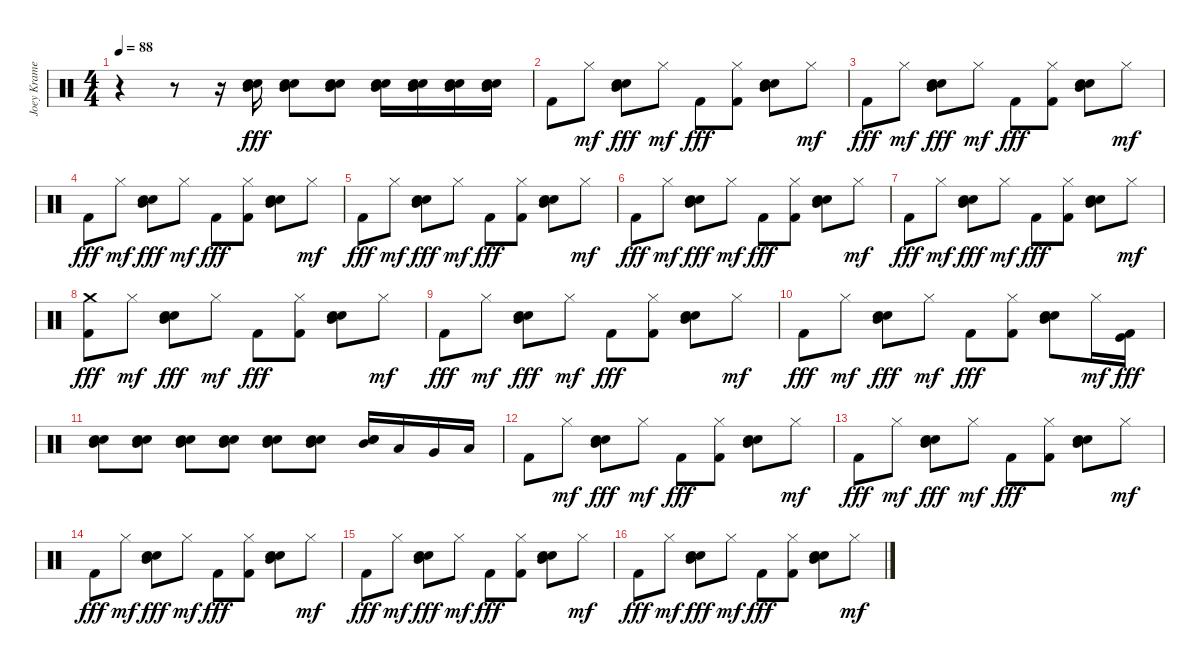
\track ("Joey Kramer" "Joey Krame") {instrument percussion}
\staff {score}
\articulation defaults
\ts (4 4)
\tempo 88
\clef neutral
\ks c
r.4{dy fff} r.8 r.16 ("Snare (hit) 2" "Electric Snare (hit)" "Mid Tom (hit)").16 ("Snare (hit) 2" "Electric Snare (hit)" "Mid Tom (hit)").8 ("Snare (hit) 2" "Electric Snare (hit)" "Mid Tom (hit)").8 ("Snare (hit) 2" "Electric Snare (hit)" "Mid Tom (hit)").16 ("Snare (hit) 2" "Electric Snare (hit)" "Mid Tom (hit)").16 ("Snare (hit) 2" "Electric Snare (hit)" "Mid Tom (hit)").16 ("Snare (hit) 2" "Electric Snare (hit)" "Mid Tom (hit)").16 |
"Kick (hit) 2".8 "Hi-Hat (closed)".8{dy mf} ("Snare (hit) 2" "Electric Snare (hit)" "Mid Tom (hit)").8{dy fff} "Hi-Hat (closed)".8{dy mf} "Kick (hit) 2".8{dy fff} ("Hi-Hat (closed)" "Kick (hit) 2").8 ("Snare (hit) 2" "Electric Snare (hit)" "Mid Tom (hit)").8 "Hi-Hat (closed)".8{dy mf} |
"Kick (hit) 2".8{dy fff} "Hi-Hat (closed)".8{dy mf} ("Snare (hit) 2" "Electric Snare (hit)" "Mid Tom (hit)").8{dy fff} "Hi-Hat (closed)".8{dy mf} "Kick (hit) 2".8{dy fff} ("Hi-Hat (closed)" "Kick (hit) 2").8 ("Snare (hit) 2" "Electric Snare (hit)" "Mid Tom (hit)").8 "Hi-Hat (closed)".8{dy mf} |
"Kick (hit) 2".8{dy fff} "Hi-Hat (closed)".8{dy mf} ("Snare (hit) 2" "Electric Snare (hit)" "Mid Tom (hit)").8{dy fff} "Hi-Hat (closed)".8{dy mf} "Kick (hit) 2".8{dy fff} ("Hi-Hat (closed)" "Kick (hit) 2").8 ("Snare (hit) 2" "Electric Snare (hit)" "Mid Tom (hit)").8 "Hi-Hat (closed)".8{dy mf} |
"Kick (hit) 2".8{dy fff} "Hi-Hat (closed)".8{dy mf} ("Snare (hit) 2" "Electric Snare (hit)" "Mid Tom (hit)").8{dy fff} "Hi-Hat (closed)".8{dy mf} "Kick (hit) 2".8{dy fff} ("Hi-Hat (closed)" "Kick (hit) 2").8 ("Snare (hit) 2" "Electric Snare (hit)" "Mid Tom (hit)").8 "Hi-Hat (closed)".8{dy mf} |
"Kick (hit) 2".8{dy fff} "Hi-Hat (closed)".8{dy mf} ("Snare (hit) 2" "Electric Snare (hit)" "Mid Tom (hit)").8{dy fff} "Hi-Hat (closed)".8{dy mf} "Kick (hit) 2".8{dy fff} ("Hi-Hat (closed)" "Kick (hit) 2").8 ("Snare (hit) 2" "Electric Snare (hit)" "Mid Tom (hit)").8 "Hi-Hat (closed)".8{dy mf} |
"Kick (hit) 2".8{dy fff} "Hi-Hat (closed)".8{dy mf} ("Snare (hit) 2" "Electric Snare (hit)" "Mid Tom (hit)").8{dy fff} "Hi-Hat (closed)".8{dy mf} "Kick (hit) 2".8{dy fff} ("Hi-Hat (closed)" "Kick (hit) 2").8 ("Snare (hit) 2" "Electric Snare (hit)" "Mid Tom (hit)").8 "Hi-Hat (closed)".8{dy mf} |
("Crash medium (hit)" "Kick (hit) 2").8{dy fff} "Hi-Hat (closed)".8{dy mf} ("Snare (hit) 2" "Electric Snare (hit)" "Mid Tom (hit)").8{dy fff} "Hi-Hat (closed)".8{dy mf} "Kick (hit) 2".8{dy fff} ("Hi-Hat (closed)" "Kick (hit) 2").8 ("Snare (hit) 2" "Electric Snare (hit)" "Mid Tom (hit)").8 "Hi-Hat (closed)".8{dy mf} |
"Kick (hit) 2".8{dy fff} "Hi-Hat (closed)".8{dy mf} ("Snare (hit) 2" "Electric Snare (hit)" "Mid Tom (hit)").8{dy fff} "Hi-Hat (closed)".8{dy mf} "Kick (hit) 2".8{dy fff} ("Hi-Hat (closed)" "Kick (hit) 2").8 ("Snare (hit) 2" "Electric Snare (hit)" "Mid Tom (hit)").8 "Hi-Hat (closed)".8{dy mf} |
"Kick (hit) 2".8{dy fff} "Hi-Hat (closed)".8{dy mf} ("Snare (hit) 2" "Electric Snare (hit)" "Mid Tom (hit)").8{dy fff} "Hi-Hat (closed)".8{dy mf} "Kick (hit) 2".8{dy fff} ("Hi-Hat (closed)" "Kick (hit) 2").8 ("Snare (hit) 2" "Electric Snare (hit)" "Mid Tom (hit)").8 "Hi-Hat (closed)".16{dy mf} ("Kick (hit)" "Kick (hit) 2").16{dy fff} |
("Snare (hit) 2" "Electric Snare (hit)" "Mid Tom (hit)").8 ("Snare (hit) 2" "Electric Snare (hit)" "Mid Tom (hit)").8 ("Snare (hit) 2" "Electric Snare (hit)" "Mid Tom (hit)").8 ("Snare (hit) 2" "Electric Snare (hit)" "Mid Tom (hit)").8 ("Snare (hit) 2" "Electric Snare (hit)" "Mid Tom (hit)").8 ("Snare (hit) 2" "Electric Snare (hit)" "Mid Tom (hit)").8 ("Snare (hit) 2" "Electric Snare (hit)" "Mid Tom (hit)").16 "Low Tom (hit)".16 "Very Low Tom (hit)".16 "Low Floor Tom (hit)".16 |
"Kick (hit) 2".8 "Hi-Hat (closed)".8{dy mf} ("Snare (hit) 2" "Electric Snare (hit)" "Mid Tom (hit)").8{dy fff} "Hi-Hat (closed)".8{dy mf} "Kick (hit) 2".8{dy fff} ("Hi-Hat (closed)" "Kick (hit) 2").8 ("Snare (hit) 2" "Electric Snare (hit)" "Mid Tom (hit)").8 "Hi-Hat (closed)".8{dy mf} |
"Kick (hit) 2".8{dy fff} "Hi-Hat (closed)".8{dy mf} ("Snare (hit) 2" "Electric Snare (hit)" "Mid Tom (hit)").8{dy fff} "Hi-Hat (closed)".8{dy mf} "Kick (hit) 2".8{dy fff} ("Hi-Hat (closed)" "Kick (hit) 2").8 ("Snare (hit) 2" "Electric Snare (hit)" "Mid Tom (hit)").8 "Hi-Hat (closed)".8{dy mf} |
"Kick (hit) 2".8{dy fff} "Hi-Hat (closed)".8{dy mf} ("Snare (hit) 2" "Electric Snare (hit)" "Mid Tom (hit)").8{dy fff} "Hi-Hat (closed)".8{dy mf} "Kick (hit) 2".8{dy fff} ("Hi-Hat (closed)" "Kick (hit) 2").8 ("Snare (hit) 2" "Electric Snare (hit)" "Mid Tom (hit)").8 "Hi-Hat (closed)".8{dy mf} |
"Kick (hit) 2".8{dy fff} "Hi-Hat (closed)".8{dy mf} ("Snare (hit) 2" "Electric Snare (hit)" "Mid Tom (hit)").8{dy fff} "Hi-Hat (closed)".8{dy mf} "Kick (hit) 2".8{dy fff} ("Hi-Hat (closed)" "Kick (hit) 2").8 ("Snare (hit) 2" "Electric Snare (hit)" "Mid Tom (hit)").8 "Hi-Hat (closed)".8{dy mf} |
"Kick (hit) 2".8{dy fff} "Hi-Hat (closed)".8{dy mf} ("Snare (hit) 2" "Electric Snare (hit)" "Mid Tom (hit)").8{dy fff} "Hi-Hat (closed)".8{dy mf} "Kick (hit) 2".8{dy fff} ("Hi-Hat (closed)" "Kick (hit) 2").8 ("Snare (hit) 2" "Electric Snare (hit)" "Mid Tom (hit)").8 "Hi-Hat (closed)".8{dy mf}
